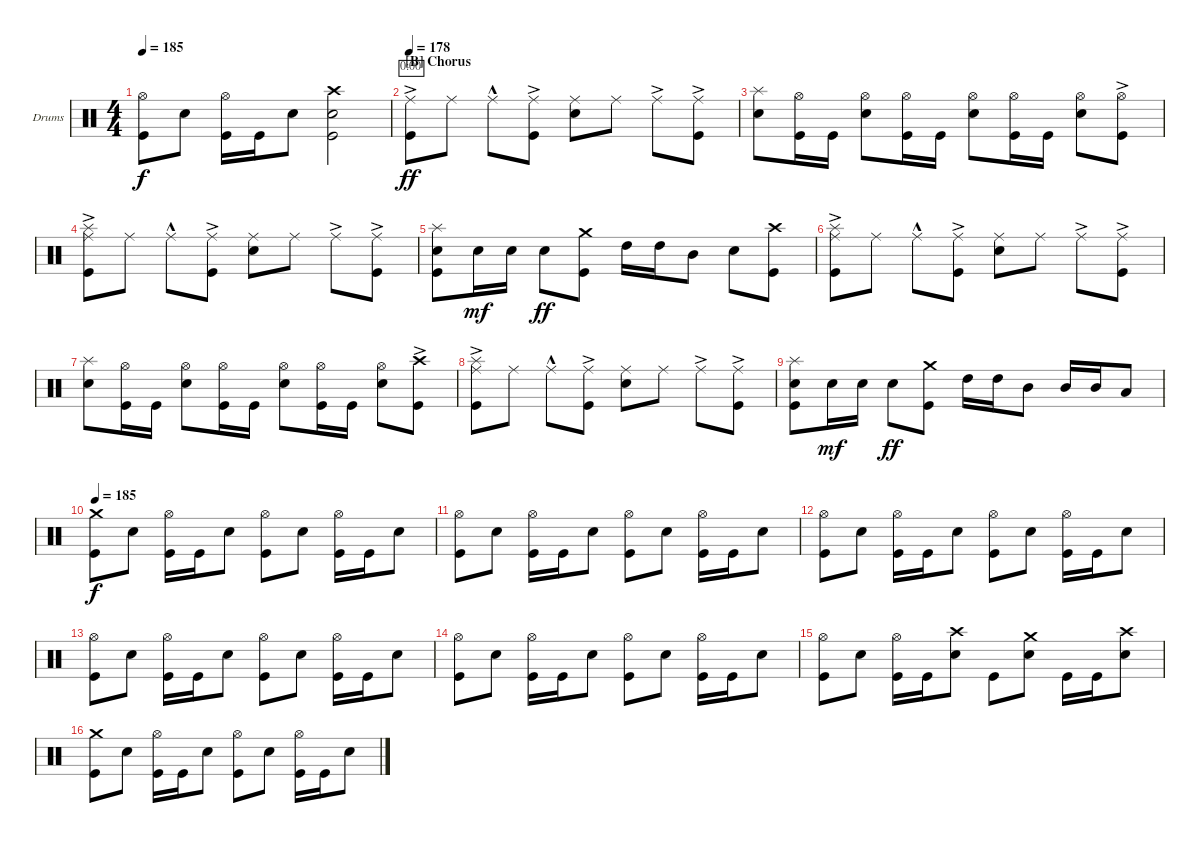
\bracketExtendMode groupsimilarinstruments
\firstSystemTrackNameOrientation horizontal
\otherSystemsTrackNameOrientation horizontal
\track ("Drumkit" "Drums") {instrument percussion}
\staff {score}
\articulation defaults
\ts (4 4)
\tempo 185
\clef neutral
\scale
1.02648
\ks c
("Kick (hit)" "Hi-Hat (open)").8{dy f} "Snare (hit) 2".8 ("Kick (hit)" "Hi-Hat (open)").16 "Kick (hit)".16 "Snare (hit) 2".8 ("Kick (hit)" "Crash high (hit)" "Snare (hit) 2").2 |
\section ("B" "Chorus")
\tempo 178
\scale
0.973518 ("Kick (hit)"{ac} "Ride (middle)").8{dy ff timer} "Ride (middle)".8 "Ride (middle)"{hac}.8 ("Ride (middle)" "Kick (hit)"{ac}).8 ("Ride (middle)" "Snare (hit) 2").8 "Ride (middle)".8 "Ride (middle)"{ac}.8 ("Ride (middle)" "Kick (hit)"{ac}).8 |
\scale
1.02648 ("Snare (hit) 2" "Splash (hit)").8 ("Kick (hit)" "Hi-Hat (open)").16 "Kick (hit)".16 ("Snare (hit) 2" "Hi-Hat (open)").8 ("Kick (hit)" "Hi-Hat (open)").16 "Kick (hit)".16 ("Snare (hit) 2" "Hi-Hat (open)").8 ("Kick (hit)" "Hi-Hat (open)").16 "Kick (hit)".16 ("Snare (hit) 2" "Hi-Hat (open)").8 ("Kick (hit)"{ac} "Hi-Hat (open)").8 |
\scale
0.973518 ("Kick (hit)"{ac} "Ride (middle)" "Splash (hit)").8 "Ride (middle)".8 "Ride (middle)"{hac}.8 ("Ride (middle)" "Kick (hit)"{ac}).8 ("Ride (middle)" "Snare (hit) 2").8 "Ride (middle)".8 "Ride (middle)"{ac}.8 ("Ride (middle)" "Kick (hit)"{ac}).8 |
\scale
1.02648 ("Kick (hit)" "Snare (hit) 2" "Splash (hit)").8 "Snare (hit) 2".16{dy mf} "Snare (hit) 2".16 "Snare (hit) 2".8{dy ff} ("Kick (hit)" "Crash medium (hit)").8 "High Tom (hit)".16 "High Tom (hit)".16 "Mid Tom (hit)".8 "Snare (hit) 2".8 ("Kick (hit)" "Crash high (hit)").8 |
\scale
0.973518 ("Kick (hit)"{ac} "Ride (middle)" "Splash (hit)").8 "Ride (middle)".8 "Ride (middle)"{hac}.8 ("Ride (middle)" "Kick (hit)"{ac}).8 ("Ride (middle)" "Snare (hit) 2").8 "Ride (middle)".8 "Ride (middle)"{ac}.8 ("Ride (middle)" "Kick (hit)"{ac}).8 |
\scale
1.02648 ("Snare (hit) 2" "Splash (hit)").8 ("Kick (hit)" "Hi-Hat (open)").16 "Kick (hit)".16 ("Snare (hit) 2" "Hi-Hat (open)").8 ("Kick (hit)" "Hi-Hat (open)").16 "Kick (hit)".16 ("Snare (hit) 2" "Hi-Hat (open)").8 ("Kick (hit)" "Hi-Hat (open)").16 "Kick (hit)".16 ("Snare (hit) 2" "Hi-Hat (open)").8 ("Kick (hit)"{ac} "Crash high (hit)").8 |
\scale
0.973518 ("Kick (hit)"{ac} "Ride (middle)" "Splash (hit)").8 "Ride (middle)".8 "Ride (middle)"{hac}.8 ("Ride (middle)" "Kick (hit)"{ac}).8 ("Ride (middle)" "Snare (hit) 2").8 "Ride (middle)".8 "Ride (middle)"{ac}.8 ("Ride (middle)" "Kick (hit)"{ac}).8 |
\scale
1.02648 ("Kick (hit)" "Snare (hit) 2" "Splash (hit)").8 "Snare (hit) 2".16{dy mf} "Snare (hit) 2".16 "Snare (hit) 2".8{dy ff} ("Kick (hit)" "Crash medium (hit)").8 "High Tom (hit)".16 "High Tom (hit)".16 "Mid Tom (hit)".8 "Mid Tom (hit)".16 "Mid Tom (hit)".16 "Low Tom (hit)".8 |
\tempo 185
\scale
0.973518 ("Kick (hit)" "Crash medium (hit)").8{dy f} "Snare (hit) 2".8 ("Kick (hit)" "Hi-Hat (open)").16 "Kick (hit)".16 "Snare (hit) 2".8 ("Kick (hit)" "Hi-Hat (open)").8 "Snare (hit) 2".8 ("Kick (hit)" "Hi-Hat (open)").16 "Kick (hit)".16 "Snare (hit) 2".8 |
\scale
1.02648 ("Kick (hit)" "Hi-Hat (open)").8 "Snare (hit) 2".8 ("Kick (hit)" "Hi-Hat (open)").16 "Kick (hit)".16 "Snare (hit) 2".8 ("Kick (hit)" "Hi-Hat (open)").8 "Snare (hit) 2".8 ("Kick (hit)" "Hi-Hat (open)").16 "Kick (hit)".16 "Snare (hit) 2".8 |
\scale
0.973518 ("Kick (hit)" "Hi-Hat (open)").8 "Snare (hit) 2".8 ("Kick (hit)" "Hi-Hat (open)").16 "Kick (hit)".16 "Snare (hit) 2".8 ("Kick (hit)" "Hi-Hat (open)").8 "Snare (hit) 2".8 ("Kick (hit)" "Hi-Hat (open)").16 "Kick (hit)".16 "Snare (hit) 2".8 |
\scale
1.02648 ("Kick (hit)" "Hi-Hat (open)").8 "Snare (hit) 2".8 ("Kick (hit)" "Hi-Hat (open)").16 "Kick (hit)".16 "Snare (hit) 2".8 ("Kick (hit)" "Hi-Hat (open)").8 "Snare (hit) 2".8 ("Kick (hit)" "Hi-Hat (open)").16 "Kick (hit)".16 "Snare (hit) 2".8 |
\scale
0.973518 ("Kick (hit)" "Hi-Hat (open)").8 "Snare (hit) 2".8 ("Kick (hit)" "Hi-Hat (open)").16 "Kick (hit)".16 "Snare (hit) 2".8 ("Kick (hit)" "Hi-Hat (open)").8 "Snare (hit) 2".8 ("Kick (hit)" "Hi-Hat (open)").16 "Kick (hit)".16 "Snare (hit) 2".8 |
\scale
1.02648 ("Kick (hit)" "Hi-Hat (open)").8 "Snare (hit) 2".8 ("Kick (hit)" "Hi-Hat (open)").16 "Kick (hit)".16 ("Snare (hit) 2" "Crash high (hit)").8 "Kick (hit)".8 ("Snare (hit) 2" "Crash medium (hit)").8 "Kick (hit)".16 "Kick (hit)".16 ("Snare (hit) 2" "Crash high (hit)").8 |
\scale
0.973518 ("Kick (hit)" "Crash medium (hit)").8 "Snare (hit) 2".8 ("Kick (hit)" "Hi-Hat (open)").16 "Kick (hit)".16 "Snare (hit) 2".8 ("Kick (hit)" "Hi-Hat (open)").8 "Snare (hit) 2".8 ("Kick (hit)" "Hi-Hat (open)").16 "Kick (hit)".16 "Snare (hit) 2".8
